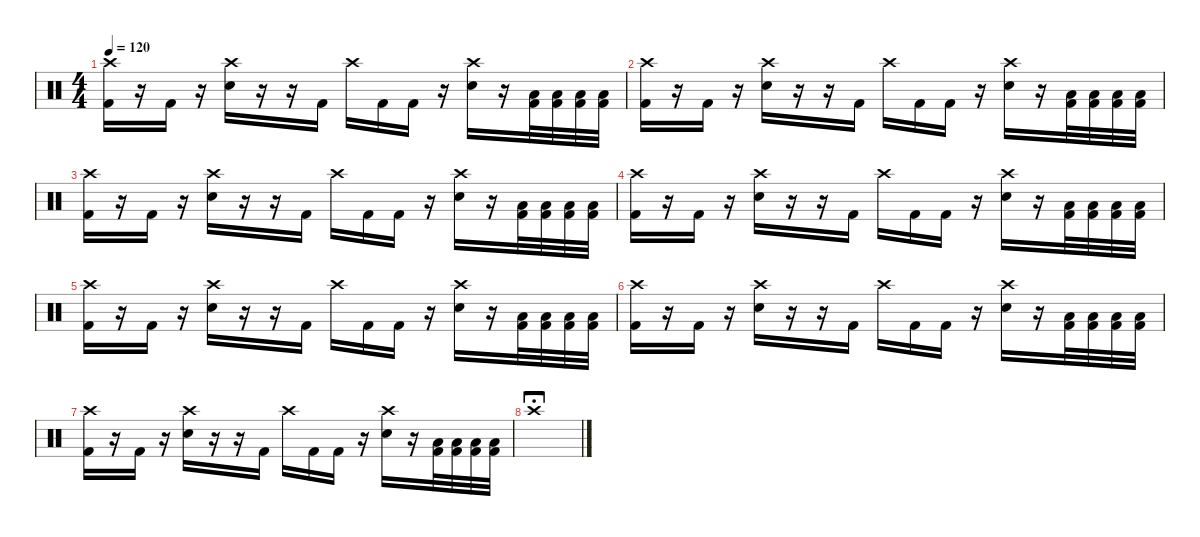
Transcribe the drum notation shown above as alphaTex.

\defaultSystemsLayout 4
\hideDynamics
\bracketExtendMode nobrackets
\singleTrackTrackNamePolicy hidden
\multiTrackTrackNamePolicy hidden
\firstSystemTrackNameMode fullname
\firstSystemTrackNameOrientation horizontal
\otherSystemsTrackNameOrientation horizontal
\track ("DRUMS" "drm.") {defaultSystemsLayout 4 instrument percussion}
\staff {score}
\articulation defaults
\ts (4 4)
\tempo 120
\clef neutral
\ks c
("Crash high (hit)" "Kick (hit) 2").16{dy f beam Down} r.16{beam Down} "Kick (hit) 2".16{beam Down} r.16{beam Down} ("Crash high (hit)" "Snare (hit) 2").16{beam Down} r.16{beam Down} r.16{beam Down} "Kick (hit) 2".16{beam Down} "Crash high (hit)".16{beam Down} "Kick (hit) 2".16{beam Down} "Kick (hit) 2".16{beam Down} r.16{beam Down} ("Crash high (hit)" "Snare (hit) 2").16{beam Down} r.16{beam Down} ("Low Tom (hit)" "Kick (hit) 2").32{beam Down} ("Low Tom (hit)" "Kick (hit) 2").32{beam Down} ("Low Tom (hit)" "Kick (hit) 2").32{beam Down} ("Low Tom (hit)" "Kick (hit) 2").32{beam Down} |
("Crash high (hit)" "Kick (hit) 2").16{beam Down} r.16{beam Down} "Kick (hit) 2".16{beam Down} r.16{beam Down} ("Crash high (hit)" "Snare (hit) 2").16{beam Down} r.16{beam Down} r.16{beam Down} "Kick (hit) 2".16{beam Down} "Crash high (hit)".16{beam Down} "Kick (hit) 2".16{beam Down} "Kick (hit) 2".16{beam Down} r.16{beam Down} ("Crash high (hit)" "Snare (hit) 2").16{beam Down} r.16{beam Down} ("Low Tom (hit)" "Kick (hit) 2").32{beam Down} ("Low Tom (hit)" "Kick (hit) 2").32{beam Down} ("Low Tom (hit)" "Kick (hit) 2").32{beam Down} ("Low Tom (hit)" "Kick (hit) 2").32{beam Down} |
("Crash high (hit)" "Kick (hit) 2").16{beam Down} r.16{beam Down} "Kick (hit) 2".16{beam Down} r.16{beam Down} ("Crash high (hit)" "Snare (hit) 2").16{beam Down} r.16{beam Down} r.16{beam Down} "Kick (hit) 2".16{beam Down} "Crash high (hit)".16{beam Down} "Kick (hit) 2".16{beam Down} "Kick (hit) 2".16{beam Down} r.16{beam Down} ("Crash high (hit)" "Snare (hit) 2").16{beam Down} r.16{beam Down} ("Low Tom (hit)" "Kick (hit) 2").32{beam Down} ("Low Tom (hit)" "Kick (hit) 2").32{beam Down} ("Low Tom (hit)" "Kick (hit) 2").32{beam Down} ("Low Tom (hit)" "Kick (hit) 2").32{beam Down} |
("Crash high (hit)" "Kick (hit) 2").16{beam Down} r.16{beam Down} "Kick (hit) 2".16{beam Down} r.16{beam Down} ("Crash high (hit)" "Snare (hit) 2").16{beam Down} r.16{beam Down} r.16{beam Down} "Kick (hit) 2".16{beam Down} "Crash high (hit)".16{beam Down} "Kick (hit) 2".16{beam Down} "Kick (hit) 2".16{beam Down} r.16{beam Down} ("Crash high (hit)" "Snare (hit) 2").16{beam Down} r.16{beam Down} ("Low Tom (hit)" "Kick (hit) 2").32{beam Down} ("Low Tom (hit)" "Kick (hit) 2").32{beam Down} ("Low Tom (hit)" "Kick (hit) 2").32{beam Down} ("Low Tom (hit)" "Kick (hit) 2").32{beam Down} |
("Crash high (hit)" "Kick (hit) 2").16{beam Down} r.16{beam Down} "Kick (hit) 2".16{beam Down} r.16{beam Down} ("Crash high (hit)" "Snare (hit) 2").16{beam Down} r.16{beam Down} r.16{beam Down} "Kick (hit) 2".16{beam Down} "Crash high (hit)".16{beam Down} "Kick (hit) 2".16{beam Down} "Kick (hit) 2".16{beam Down} r.16{beam Down} ("Crash high (hit)" "Snare (hit) 2").16{beam Down} r.16{beam Down} ("Low Tom (hit)" "Kick (hit) 2").32{beam Down} ("Low Tom (hit)" "Kick (hit) 2").32{beam Down} ("Low Tom (hit)" "Kick (hit) 2").32{beam Down} ("Low Tom (hit)" "Kick (hit) 2").32{beam Down} |
("Crash high (hit)" "Kick (hit) 2").16{beam Down} r.16{beam Down} "Kick (hit) 2".16{beam Down} r.16{beam Down} ("Crash high (hit)" "Snare (hit) 2").16{beam Down} r.16{beam Down} r.16{beam Down} "Kick (hit) 2".16{beam Down} "Crash high (hit)".16{beam Down} "Kick (hit) 2".16{beam Down} "Kick (hit) 2".16{beam Down} r.16{beam Down} ("Crash high (hit)" "Snare (hit) 2").16{beam Down} r.16{beam Down} ("Low Tom (hit)" "Kick (hit) 2").32{beam Down} ("Low Tom (hit)" "Kick (hit) 2").32{beam Down} ("Low Tom (hit)" "Kick (hit) 2").32{beam Down} ("Low Tom (hit)" "Kick (hit) 2").32{beam Down} |
("Crash high (hit)" "Kick (hit) 2").16{beam Down} r.16{beam Down} "Kick (hit) 2".16{beam Down} r.16{beam Down} ("Crash high (hit)" "Snare (hit) 2").16{beam Down} r.16{beam Down} r.16{beam Down} "Kick (hit) 2".16{beam Down} "Crash high (hit)".16{beam Down} "Kick (hit) 2".16{beam Down} "Kick (hit) 2".16{beam Down} r.16{beam Down} ("Crash high (hit)" "Snare (hit) 2").16{beam Down} r.16{beam Down} ("Low Tom (hit)" "Kick (hit) 2").32{beam Down} ("Low Tom (hit)" "Kick (hit) 2").32{beam Down} ("Low Tom (hit)" "Kick (hit) 2").32{beam Down} ("Low Tom (hit)" "Kick (hit) 2").32{beam Down} |
"Crash high (hit)".1{fermata (long 1) beam Down}
